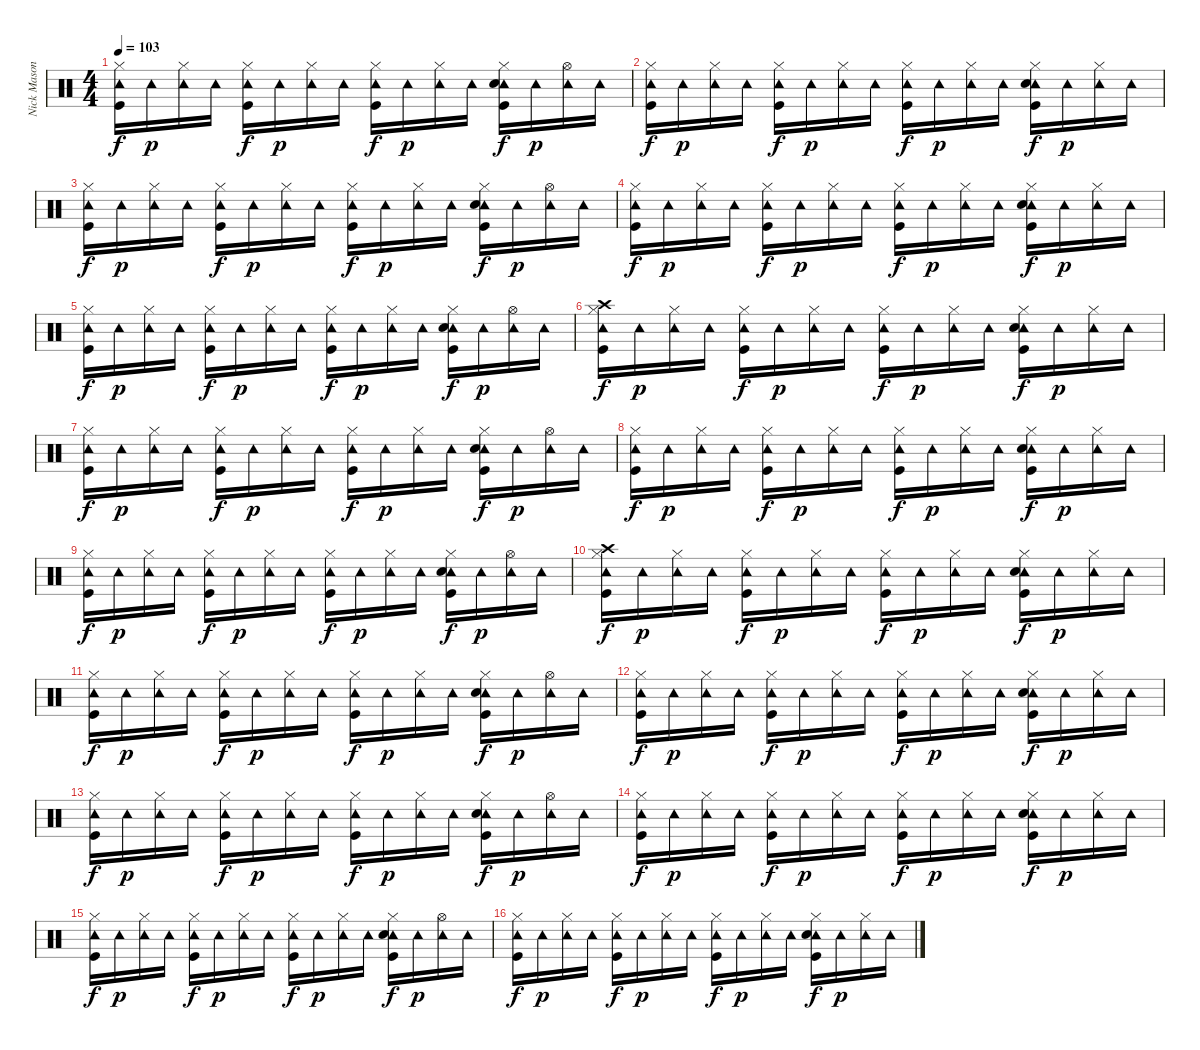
\track ("Nick Mason" "Nick Mason") {instrument percussion}
\staff {score}
\articulation defaults
\ts (4 4)
\tempo 103
\clef neutral
\ks c
("Tambourine (hit)" "Kick (hit)" "Hi-Hat (closed)").16{dy f} "Tambourine (hit)".16{dy p} ("Tambourine (hit)" "Hi-Hat (closed)").16 "Tambourine (hit)".16 ("Tambourine (hit)" "Kick (hit)" "Hi-Hat (closed)").16{dy f} "Tambourine (hit)".16{dy p} ("Tambourine (hit)" "Hi-Hat (closed)").16 "Tambourine (hit)".16 ("Tambourine (hit)" "Kick (hit)" "Hi-Hat (closed)").16{dy f} "Tambourine (hit)".16{dy p} ("Tambourine (hit)" "Hi-Hat (closed)").16 "Tambourine (hit)".16 ("Tambourine (hit)" "Kick (hit)" "Snare (hit) 2" "Hi-Hat (closed)").16{dy f} "Tambourine (hit)".16{dy p} ("Tambourine (hit)" "Hi-Hat (open)").16 "Tambourine (hit)".16 |
("Tambourine (hit)" "Kick (hit)" "Hi-Hat (closed)").16{dy f} "Tambourine (hit)".16{dy p} ("Tambourine (hit)" "Hi-Hat (closed)").16 "Tambourine (hit)".16 ("Tambourine (hit)" "Kick (hit)" "Hi-Hat (closed)").16{dy f} "Tambourine (hit)".16{dy p} ("Tambourine (hit)" "Hi-Hat (closed)").16 "Tambourine (hit)".16 ("Tambourine (hit)" "Kick (hit)" "Hi-Hat (closed)").16{dy f} "Tambourine (hit)".16{dy p} ("Tambourine (hit)" "Hi-Hat (closed)").16 "Tambourine (hit)".16 ("Tambourine (hit)" "Kick (hit)" "Snare (hit) 2" "Hi-Hat (closed)").16{dy f} "Tambourine (hit)".16{dy p} ("Tambourine (hit)" "Hi-Hat (closed)").16 "Tambourine (hit)".16 |
("Tambourine (hit)" "Kick (hit)" "Hi-Hat (closed)").16{dy f} "Tambourine (hit)".16{dy p} ("Tambourine (hit)" "Hi-Hat (closed)").16 "Tambourine (hit)".16 ("Tambourine (hit)" "Kick (hit)" "Hi-Hat (closed)").16{dy f} "Tambourine (hit)".16{dy p} ("Tambourine (hit)" "Hi-Hat (closed)").16 "Tambourine (hit)".16 ("Tambourine (hit)" "Kick (hit)" "Hi-Hat (closed)").16{dy f} "Tambourine (hit)".16{dy p} ("Tambourine (hit)" "Hi-Hat (closed)").16 "Tambourine (hit)".16 ("Tambourine (hit)" "Kick (hit)" "Snare (hit) 2" "Hi-Hat (closed)").16{dy f} "Tambourine (hit)".16{dy p} ("Tambourine (hit)" "Hi-Hat (open)").16 "Tambourine (hit)".16 |
("Tambourine (hit)" "Kick (hit)" "Hi-Hat (closed)").16{dy f} "Tambourine (hit)".16{dy p} ("Tambourine (hit)" "Hi-Hat (closed)").16 "Tambourine (hit)".16 ("Tambourine (hit)" "Kick (hit)" "Hi-Hat (closed)").16{dy f} "Tambourine (hit)".16{dy p} ("Tambourine (hit)" "Hi-Hat (closed)").16 "Tambourine (hit)".16 ("Tambourine (hit)" "Kick (hit)" "Hi-Hat (closed)").16{dy f} "Tambourine (hit)".16{dy p} ("Tambourine (hit)" "Hi-Hat (closed)").16 "Tambourine (hit)".16 ("Tambourine (hit)" "Kick (hit)" "Snare (hit) 2" "Hi-Hat (closed)").16{dy f} "Tambourine (hit)".16{dy p} ("Tambourine (hit)" "Hi-Hat (closed)").16 "Tambourine (hit)".16 |
("Tambourine (hit)" "Kick (hit)" "Hi-Hat (closed)").16{dy f} "Tambourine (hit)".16{dy p} ("Tambourine (hit)" "Hi-Hat (closed)").16 "Tambourine (hit)".16 ("Tambourine (hit)" "Kick (hit)" "Hi-Hat (closed)").16{dy f} "Tambourine (hit)".16{dy p} ("Tambourine (hit)" "Hi-Hat (closed)").16 "Tambourine (hit)".16 ("Tambourine (hit)" "Kick (hit)" "Hi-Hat (closed)").16{dy f} "Tambourine (hit)".16{dy p} ("Tambourine (hit)" "Hi-Hat (closed)").16 "Tambourine (hit)".16 ("Tambourine (hit)" "Kick (hit)" "Snare (hit) 2" "Hi-Hat (closed)").16{dy f} "Tambourine (hit)".16{dy p} ("Tambourine (hit)" "Hi-Hat (open)").16 "Tambourine (hit)".16 |
("Tambourine (hit)" "Kick (hit)" "Hi-Hat (closed)" "Crash high (hit)").16{dy f} "Tambourine (hit)".16{dy p} ("Tambourine (hit)" "Hi-Hat (closed)").16 "Tambourine (hit)".16 ("Tambourine (hit)" "Kick (hit)" "Hi-Hat (closed)").16{dy f} "Tambourine (hit)".16{dy p} ("Tambourine (hit)" "Hi-Hat (closed)").16 "Tambourine (hit)".16 ("Tambourine (hit)" "Kick (hit)" "Hi-Hat (closed)").16{dy f} "Tambourine (hit)".16{dy p} ("Tambourine (hit)" "Hi-Hat (closed)").16 "Tambourine (hit)".16 ("Tambourine (hit)" "Kick (hit)" "Snare (hit) 2" "Hi-Hat (closed)").16{dy f} "Tambourine (hit)".16{dy p} ("Tambourine (hit)" "Hi-Hat (closed)").16 "Tambourine (hit)".16 |
("Tambourine (hit)" "Kick (hit)" "Hi-Hat (closed)").16{dy f} "Tambourine (hit)".16{dy p} ("Tambourine (hit)" "Hi-Hat (closed)").16 "Tambourine (hit)".16 ("Tambourine (hit)" "Kick (hit)" "Hi-Hat (closed)").16{dy f} "Tambourine (hit)".16{dy p} ("Tambourine (hit)" "Hi-Hat (closed)").16 "Tambourine (hit)".16 ("Tambourine (hit)" "Kick (hit)" "Hi-Hat (closed)").16{dy f} "Tambourine (hit)".16{dy p} ("Tambourine (hit)" "Hi-Hat (closed)").16 "Tambourine (hit)".16 ("Tambourine (hit)" "Kick (hit)" "Snare (hit) 2" "Hi-Hat (closed)").16{dy f} "Tambourine (hit)".16{dy p} ("Tambourine (hit)" "Hi-Hat (open)").16 "Tambourine (hit)".16 |
("Tambourine (hit)" "Kick (hit)" "Hi-Hat (closed)").16{dy f} "Tambourine (hit)".16{dy p} ("Tambourine (hit)" "Hi-Hat (closed)").16 "Tambourine (hit)".16 ("Tambourine (hit)" "Kick (hit)" "Hi-Hat (closed)").16{dy f} "Tambourine (hit)".16{dy p} ("Tambourine (hit)" "Hi-Hat (closed)").16 "Tambourine (hit)".16 ("Tambourine (hit)" "Kick (hit)" "Hi-Hat (closed)").16{dy f} "Tambourine (hit)".16{dy p} ("Tambourine (hit)" "Hi-Hat (closed)").16 "Tambourine (hit)".16 ("Tambourine (hit)" "Kick (hit)" "Snare (hit) 2" "Hi-Hat (closed)").16{dy f} "Tambourine (hit)".16{dy p} ("Tambourine (hit)" "Hi-Hat (closed)").16 "Tambourine (hit)".16 |
("Tambourine (hit)" "Kick (hit)" "Hi-Hat (closed)").16{dy f} "Tambourine (hit)".16{dy p} ("Tambourine (hit)" "Hi-Hat (closed)").16 "Tambourine (hit)".16 ("Tambourine (hit)" "Kick (hit)" "Hi-Hat (closed)").16{dy f} "Tambourine (hit)".16{dy p} ("Tambourine (hit)" "Hi-Hat (closed)").16 "Tambourine (hit)".16 ("Tambourine (hit)" "Kick (hit)" "Hi-Hat (closed)").16{dy f} "Tambourine (hit)".16{dy p} ("Tambourine (hit)" "Hi-Hat (closed)").16 "Tambourine (hit)".16 ("Tambourine (hit)" "Kick (hit)" "Snare (hit) 2" "Hi-Hat (closed)").16{dy f} "Tambourine (hit)".16{dy p} ("Tambourine (hit)" "Hi-Hat (open)").16 "Tambourine (hit)".16 |
("Tambourine (hit)" "Kick (hit)" "Hi-Hat (closed)" "Crash high (hit)").16{dy f} "Tambourine (hit)".16{dy p} ("Tambourine (hit)" "Hi-Hat (closed)").16 "Tambourine (hit)".16 ("Tambourine (hit)" "Kick (hit)" "Hi-Hat (closed)").16{dy f} "Tambourine (hit)".16{dy p} ("Tambourine (hit)" "Hi-Hat (closed)").16 "Tambourine (hit)".16 ("Tambourine (hit)" "Kick (hit)" "Hi-Hat (closed)").16{dy f} "Tambourine (hit)".16{dy p} ("Tambourine (hit)" "Hi-Hat (closed)").16 "Tambourine (hit)".16 ("Tambourine (hit)" "Kick (hit)" "Snare (hit) 2" "Hi-Hat (closed)").16{dy f} "Tambourine (hit)".16{dy p} ("Tambourine (hit)" "Hi-Hat (closed)").16 "Tambourine (hit)".16 |
("Tambourine (hit)" "Kick (hit)" "Hi-Hat (closed)").16{dy f} "Tambourine (hit)".16{dy p} ("Tambourine (hit)" "Hi-Hat (closed)").16 "Tambourine (hit)".16 ("Tambourine (hit)" "Kick (hit)" "Hi-Hat (closed)").16{dy f} "Tambourine (hit)".16{dy p} ("Tambourine (hit)" "Hi-Hat (closed)").16 "Tambourine (hit)".16 ("Tambourine (hit)" "Kick (hit)" "Hi-Hat (closed)").16{dy f} "Tambourine (hit)".16{dy p} ("Tambourine (hit)" "Hi-Hat (closed)").16 "Tambourine (hit)".16 ("Tambourine (hit)" "Kick (hit)" "Snare (hit) 2" "Hi-Hat (closed)").16{dy f} "Tambourine (hit)".16{dy p} ("Tambourine (hit)" "Hi-Hat (open)").16 "Tambourine (hit)".16 |
("Tambourine (hit)" "Kick (hit)" "Hi-Hat (closed)").16{dy f} "Tambourine (hit)".16{dy p} ("Tambourine (hit)" "Hi-Hat (closed)").16 "Tambourine (hit)".16 ("Tambourine (hit)" "Kick (hit)" "Hi-Hat (closed)").16{dy f} "Tambourine (hit)".16{dy p} ("Tambourine (hit)" "Hi-Hat (closed)").16 "Tambourine (hit)".16 ("Tambourine (hit)" "Kick (hit)" "Hi-Hat (closed)").16{dy f} "Tambourine (hit)".16{dy p} ("Tambourine (hit)" "Hi-Hat (closed)").16 "Tambourine (hit)".16 ("Tambourine (hit)" "Kick (hit)" "Snare (hit) 2" "Hi-Hat (closed)").16{dy f} "Tambourine (hit)".16{dy p} ("Tambourine (hit)" "Hi-Hat (closed)").16 "Tambourine (hit)".16 |
("Tambourine (hit)" "Kick (hit)" "Hi-Hat (closed)").16{dy f} "Tambourine (hit)".16{dy p} ("Tambourine (hit)" "Hi-Hat (closed)").16 "Tambourine (hit)".16 ("Tambourine (hit)" "Kick (hit)" "Hi-Hat (closed)").16{dy f} "Tambourine (hit)".16{dy p} ("Tambourine (hit)" "Hi-Hat (closed)").16 "Tambourine (hit)".16 ("Tambourine (hit)" "Kick (hit)" "Hi-Hat (closed)").16{dy f} "Tambourine (hit)".16{dy p} ("Tambourine (hit)" "Hi-Hat (closed)").16 "Tambourine (hit)".16 ("Tambourine (hit)" "Kick (hit)" "Snare (hit) 2" "Hi-Hat (closed)").16{dy f} "Tambourine (hit)".16{dy p} ("Tambourine (hit)" "Hi-Hat (open)").16 "Tambourine (hit)".16 |
("Tambourine (hit)" "Kick (hit)" "Hi-Hat (closed)").16{dy f} "Tambourine (hit)".16{dy p} ("Tambourine (hit)" "Hi-Hat (closed)").16 "Tambourine (hit)".16 ("Tambourine (hit)" "Kick (hit)" "Hi-Hat (closed)").16{dy f} "Tambourine (hit)".16{dy p} ("Tambourine (hit)" "Hi-Hat (closed)").16 "Tambourine (hit)".16 ("Tambourine (hit)" "Kick (hit)" "Hi-Hat (closed)").16{dy f} "Tambourine (hit)".16{dy p} ("Tambourine (hit)" "Hi-Hat (closed)").16 "Tambourine (hit)".16 ("Tambourine (hit)" "Kick (hit)" "Snare (hit) 2" "Hi-Hat (closed)").16{dy f} "Tambourine (hit)".16{dy p} ("Tambourine (hit)" "Hi-Hat (closed)").16 "Tambourine (hit)".16 |
("Tambourine (hit)" "Kick (hit)" "Hi-Hat (closed)").16{dy f} "Tambourine (hit)".16{dy p} ("Tambourine (hit)" "Hi-Hat (closed)").16 "Tambourine (hit)".16 ("Tambourine (hit)" "Kick (hit)" "Hi-Hat (closed)").16{dy f} "Tambourine (hit)".16{dy p} ("Tambourine (hit)" "Hi-Hat (closed)").16 "Tambourine (hit)".16 ("Tambourine (hit)" "Kick (hit)" "Hi-Hat (closed)").16{dy f} "Tambourine (hit)".16{dy p} ("Tambourine (hit)" "Hi-Hat (closed)").16 "Tambourine (hit)".16 ("Tambourine (hit)" "Kick (hit)" "Snare (hit) 2" "Hi-Hat (closed)").16{dy f} "Tambourine (hit)".16{dy p} ("Tambourine (hit)" "Hi-Hat (open)").16 "Tambourine (hit)".16 |
("Tambourine (hit)" "Kick (hit)" "Hi-Hat (closed)").16{dy f} "Tambourine (hit)".16{dy p} ("Tambourine (hit)" "Hi-Hat (closed)").16 "Tambourine (hit)".16 ("Tambourine (hit)" "Kick (hit)" "Hi-Hat (closed)").16{dy f} "Tambourine (hit)".16{dy p} ("Tambourine (hit)" "Hi-Hat (closed)").16 "Tambourine (hit)".16 ("Tambourine (hit)" "Kick (hit)" "Hi-Hat (closed)").16{dy f} "Tambourine (hit)".16{dy p} ("Tambourine (hit)" "Hi-Hat (closed)").16 "Tambourine (hit)".16 ("Tambourine (hit)" "Kick (hit)" "Snare (hit) 2" "Hi-Hat (closed)").16{dy f} "Tambourine (hit)".16{dy p} ("Tambourine (hit)" "Hi-Hat (closed)").16 "Tambourine (hit)".16
